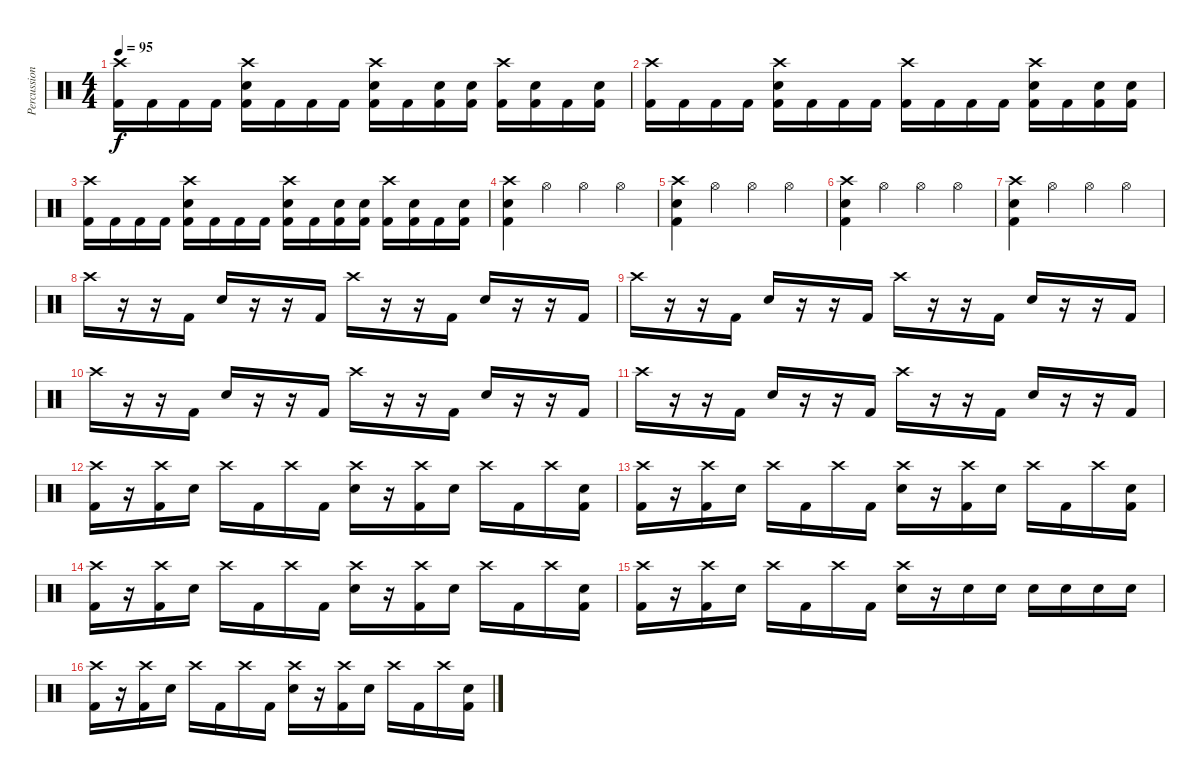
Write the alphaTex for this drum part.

\track ("Percussion" "Percussion") {instrument percussion}
\staff {score}
\articulation defaults
\ts (4 4)
\tempo 95
\clef neutral
\ks c
("Crash high (hit)" "Kick (hit) 2").16{dy f} "Kick (hit) 2".16 "Kick (hit) 2".16 "Kick (hit) 2".16 ("Crash high (hit)" "Snare (hit) 2" "Kick (hit) 2").16 "Kick (hit) 2".16 "Kick (hit) 2".16 "Kick (hit) 2".16 ("Crash high (hit)" "Snare (hit) 2" "Kick (hit) 2").16 "Kick (hit) 2".16 ("Snare (hit) 2" "Kick (hit) 2").16 ("Snare (hit) 2" "Kick (hit) 2").16 ("Crash high (hit)" "Kick (hit) 2").16 ("Snare (hit) 2" "Kick (hit) 2").16 "Kick (hit) 2".16 ("Snare (hit) 2" "Kick (hit) 2").16 |
("Crash high (hit)" "Kick (hit) 2").16 "Kick (hit) 2".16 "Kick (hit) 2".16 "Kick (hit) 2".16 ("Crash high (hit)" "Snare (hit) 2" "Kick (hit) 2").16 "Kick (hit) 2".16 "Kick (hit) 2".16 "Kick (hit) 2".16 ("Crash high (hit)" "Kick (hit) 2").16 "Kick (hit) 2".16 "Kick (hit) 2".16 "Kick (hit) 2".16 ("Crash high (hit)" "Snare (hit) 2" "Kick (hit) 2").16 "Kick (hit) 2".16 ("Snare (hit) 2" "Kick (hit) 2").16 ("Snare (hit) 2" "Kick (hit) 2").16 |
("Crash high (hit)" "Kick (hit) 2").16 "Kick (hit) 2".16 "Kick (hit) 2".16 "Kick (hit) 2".16 ("Crash high (hit)" "Snare (hit) 2" "Kick (hit) 2").16 "Kick (hit) 2".16 "Kick (hit) 2".16 "Kick (hit) 2".16 ("Crash high (hit)" "Snare (hit) 2" "Kick (hit) 2").16 "Kick (hit) 2".16 ("Snare (hit) 2" "Kick (hit) 2").16 ("Snare (hit) 2" "Kick (hit) 2").16 ("Crash high (hit)" "Kick (hit) 2").16 ("Snare (hit) 2" "Kick (hit) 2").16 "Kick (hit) 2".16 ("Snare (hit) 2" "Kick (hit) 2").16 |
("Crash high (hit)" "Snare (hit) 2" "Kick (hit) 2").4 "Hi-Hat (open)".4 "Hi-Hat (open)".4 "Hi-Hat (open)".4 |
("Crash high (hit)" "Snare (hit) 2" "Kick (hit) 2").4 "Hi-Hat (open)".4 "Hi-Hat (open)".4 "Hi-Hat (open)".4 |
("Crash high (hit)" "Snare (hit) 2" "Kick (hit) 2").4 "Hi-Hat (open)".4 "Hi-Hat (open)".4 "Hi-Hat (open)".4 |
("Crash high (hit)" "Snare (hit) 2" "Kick (hit) 2").4 "Hi-Hat (open)".4 "Hi-Hat (open)".4 "Hi-Hat (open)".4 |
"Crash high (hit)".16 r.16 r.16 "Kick (hit) 2".16 "Snare (hit) 2".16 r.16 r.16 "Kick (hit) 2".16 "Crash high (hit)".16 r.16 r.16 "Kick (hit) 2".16 "Snare (hit) 2".16 r.16 r.16 "Kick (hit) 2".16 |
"Crash high (hit)".16 r.16 r.16 "Kick (hit) 2".16 "Snare (hit) 2".16 r.16 r.16 "Kick (hit) 2".16 "Crash high (hit)".16 r.16 r.16 "Kick (hit) 2".16 "Snare (hit) 2".16 r.16 r.16 "Kick (hit) 2".16 |
"Crash high (hit)".16 r.16 r.16 "Kick (hit) 2".16 "Snare (hit) 2".16 r.16 r.16 "Kick (hit) 2".16 "Crash high (hit)".16 r.16 r.16 "Kick (hit) 2".16 "Snare (hit) 2".16 r.16 r.16 "Kick (hit) 2".16 |
"Crash high (hit)".16 r.16 r.16 "Kick (hit) 2".16 "Snare (hit) 2".16 r.16 r.16 "Kick (hit) 2".16 "Crash high (hit)".16 r.16 r.16 "Kick (hit) 2".16 "Snare (hit) 2".16 r.16 r.16 "Kick (hit) 2".16 |
("Crash high (hit)" "Kick (hit) 2").16 r.16 ("Crash high (hit)" "Kick (hit) 2").16 "Snare (hit) 2".16 "Crash high (hit)".16 "Kick (hit) 2".16 "Crash high (hit)".16 "Kick (hit) 2".16 ("Crash high (hit)" "Snare (hit) 2").16 r.16 ("Crash high (hit)" "Kick (hit) 2").16 "Snare (hit) 2".16 "Crash high (hit)".16 "Kick (hit) 2".16 "Crash high (hit)".16 ("Snare (hit) 2" "Kick (hit) 2").16 |
("Crash high (hit)" "Kick (hit) 2").16 r.16 ("Crash high (hit)" "Kick (hit) 2").16 "Snare (hit) 2".16 "Crash high (hit)".16 "Kick (hit) 2".16 "Crash high (hit)".16 "Kick (hit) 2".16 ("Crash high (hit)" "Snare (hit) 2").16 r.16 ("Crash high (hit)" "Kick (hit) 2").16 "Snare (hit) 2".16 "Crash high (hit)".16 "Kick (hit) 2".16 "Crash high (hit)".16 ("Snare (hit) 2" "Kick (hit) 2").16 |
("Crash high (hit)" "Kick (hit) 2").16 r.16 ("Crash high (hit)" "Kick (hit) 2").16 "Snare (hit) 2".16 "Crash high (hit)".16 "Kick (hit) 2".16 "Crash high (hit)".16 "Kick (hit) 2".16 ("Crash high (hit)" "Snare (hit) 2").16 r.16 ("Crash high (hit)" "Kick (hit) 2").16 "Snare (hit) 2".16 "Crash high (hit)".16 "Kick (hit) 2".16 "Crash high (hit)".16 ("Snare (hit) 2" "Kick (hit) 2").16 |
("Crash high (hit)" "Kick (hit) 2").16 r.16 ("Crash high (hit)" "Kick (hit) 2").16 "Snare (hit) 2".16 "Crash high (hit)".16 "Kick (hit) 2".16 "Crash high (hit)".16 "Kick (hit) 2".16 ("Crash high (hit)" "Snare (hit) 2").16 r.16 "Snare (hit) 2".16 "Snare (hit) 2".16 "Snare (hit) 2".16 "Snare (hit) 2".16 "Snare (hit) 2".16 "Snare (hit) 2".16 |
("Crash high (hit)" "Kick (hit) 2").16 r.16 ("Crash high (hit)" "Kick (hit) 2").16 "Snare (hit) 2".16 "Crash high (hit)".16 "Kick (hit) 2".16 "Crash high (hit)".16 "Kick (hit) 2".16 ("Crash high (hit)" "Snare (hit) 2").16 r.16 ("Crash high (hit)" "Kick (hit) 2").16 "Snare (hit) 2".16 "Crash high (hit)".16 "Kick (hit) 2".16 "Crash high (hit)".16 ("Snare (hit) 2" "Kick (hit) 2").16
